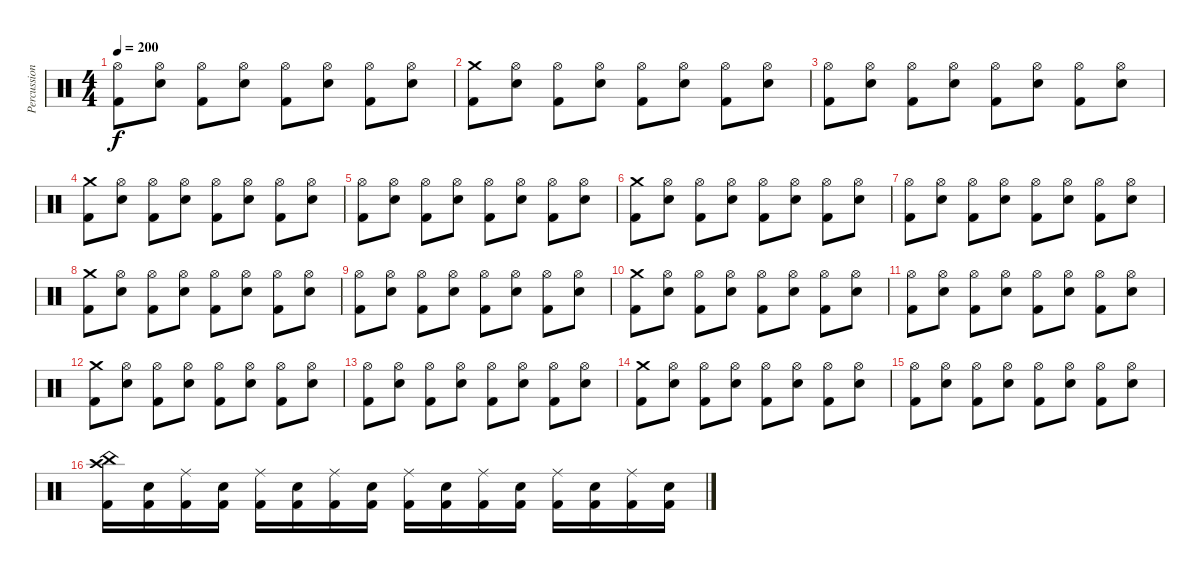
\track ("Percussion" "Percussion") {instrument percussion}
\staff
\articulation defaults
\ts (4 4)
\tempo 200
\clef neutral
\ks c
("Hi-Hat (open)" "Kick (hit) 2").8{dy f} ("Hi-Hat (open)" "Electric Snare (hit)").8 ("Hi-Hat (open)" "Kick (hit) 2").8 ("Hi-Hat (open)" "Electric Snare (hit)").8 ("Hi-Hat (open)" "Kick (hit) 2").8 ("Hi-Hat (open)" "Electric Snare (hit)").8 ("Hi-Hat (open)" "Kick (hit) 2").8 ("Hi-Hat (open)" "Electric Snare (hit)").8 |
("Crash medium (hit)" "Kick (hit) 2").8 ("Hi-Hat (open)" "Electric Snare (hit)").8 ("Hi-Hat (open)" "Kick (hit) 2").8 ("Hi-Hat (open)" "Electric Snare (hit)").8 ("Hi-Hat (open)" "Kick (hit) 2").8 ("Hi-Hat (open)" "Electric Snare (hit)").8 ("Hi-Hat (open)" "Kick (hit) 2").8 ("Hi-Hat (open)" "Electric Snare (hit)").8 |
("Hi-Hat (open)" "Kick (hit) 2").8 ("Hi-Hat (open)" "Electric Snare (hit)").8 ("Hi-Hat (open)" "Kick (hit) 2").8 ("Hi-Hat (open)" "Electric Snare (hit)").8 ("Hi-Hat (open)" "Kick (hit) 2").8 ("Hi-Hat (open)" "Electric Snare (hit)").8 ("Hi-Hat (open)" "Kick (hit) 2").8 ("Hi-Hat (open)" "Electric Snare (hit)").8 |
("Crash medium (hit)" "Kick (hit) 2").8 ("Hi-Hat (open)" "Electric Snare (hit)").8 ("Hi-Hat (open)" "Kick (hit) 2").8 ("Hi-Hat (open)" "Electric Snare (hit)").8 ("Hi-Hat (open)" "Kick (hit) 2").8 ("Hi-Hat (open)" "Electric Snare (hit)").8 ("Hi-Hat (open)" "Kick (hit) 2").8 ("Hi-Hat (open)" "Electric Snare (hit)").8 |
("Hi-Hat (open)" "Kick (hit) 2").8 ("Hi-Hat (open)" "Electric Snare (hit)").8 ("Hi-Hat (open)" "Kick (hit) 2").8 ("Hi-Hat (open)" "Electric Snare (hit)").8 ("Hi-Hat (open)" "Kick (hit) 2").8 ("Hi-Hat (open)" "Electric Snare (hit)").8 ("Hi-Hat (open)" "Kick (hit) 2").8 ("Hi-Hat (open)" "Electric Snare (hit)").8 |
("Crash medium (hit)" "Kick (hit) 2").8 ("Hi-Hat (open)" "Electric Snare (hit)").8 ("Hi-Hat (open)" "Kick (hit) 2").8 ("Hi-Hat (open)" "Electric Snare (hit)").8 ("Hi-Hat (open)" "Kick (hit) 2").8 ("Hi-Hat (open)" "Electric Snare (hit)").8 ("Hi-Hat (open)" "Kick (hit) 2").8 ("Hi-Hat (open)" "Electric Snare (hit)").8 |
("Hi-Hat (open)" "Kick (hit) 2").8 ("Hi-Hat (open)" "Electric Snare (hit)").8 ("Hi-Hat (open)" "Kick (hit) 2").8 ("Hi-Hat (open)" "Electric Snare (hit)").8 ("Hi-Hat (open)" "Kick (hit) 2").8 ("Hi-Hat (open)" "Electric Snare (hit)").8 ("Hi-Hat (open)" "Kick (hit) 2").8 ("Hi-Hat (open)" "Electric Snare (hit)").8 |
("Crash medium (hit)" "Kick (hit) 2").8 ("Hi-Hat (open)" "Electric Snare (hit)").8 ("Hi-Hat (open)" "Kick (hit) 2").8 ("Hi-Hat (open)" "Electric Snare (hit)").8 ("Hi-Hat (open)" "Kick (hit) 2").8 ("Hi-Hat (open)" "Electric Snare (hit)").8 ("Hi-Hat (open)" "Kick (hit) 2").8 ("Hi-Hat (open)" "Electric Snare (hit)").8 |
("Hi-Hat (open)" "Kick (hit) 2").8 ("Hi-Hat (open)" "Electric Snare (hit)").8 ("Hi-Hat (open)" "Kick (hit) 2").8 ("Hi-Hat (open)" "Electric Snare (hit)").8 ("Hi-Hat (open)" "Kick (hit) 2").8 ("Hi-Hat (open)" "Electric Snare (hit)").8 ("Hi-Hat (open)" "Kick (hit) 2").8 ("Hi-Hat (open)" "Electric Snare (hit)").8 |
("Crash medium (hit)" "Kick (hit) 2").8 ("Hi-Hat (open)" "Electric Snare (hit)").8 ("Hi-Hat (open)" "Kick (hit) 2").8 ("Hi-Hat (open)" "Electric Snare (hit)").8 ("Hi-Hat (open)" "Kick (hit) 2").8 ("Hi-Hat (open)" "Electric Snare (hit)").8 ("Hi-Hat (open)" "Kick (hit) 2").8 ("Hi-Hat (open)" "Electric Snare (hit)").8 |
("Hi-Hat (open)" "Kick (hit) 2").8 ("Hi-Hat (open)" "Electric Snare (hit)").8 ("Hi-Hat (open)" "Kick (hit) 2").8 ("Hi-Hat (open)" "Electric Snare (hit)").8 ("Hi-Hat (open)" "Kick (hit) 2").8 ("Hi-Hat (open)" "Electric Snare (hit)").8 ("Hi-Hat (open)" "Kick (hit) 2").8 ("Hi-Hat (open)" "Electric Snare (hit)").8 |
("Crash medium (hit)" "Kick (hit) 2").8 ("Hi-Hat (open)" "Electric Snare (hit)").8 ("Hi-Hat (open)" "Kick (hit) 2").8 ("Hi-Hat (open)" "Electric Snare (hit)").8 ("Hi-Hat (open)" "Kick (hit) 2").8 ("Hi-Hat (open)" "Electric Snare (hit)").8 ("Hi-Hat (open)" "Kick (hit) 2").8 ("Hi-Hat (open)" "Electric Snare (hit)").8 |
("Hi-Hat (open)" "Kick (hit) 2").8 ("Hi-Hat (open)" "Electric Snare (hit)").8 ("Hi-Hat (open)" "Kick (hit) 2").8 ("Hi-Hat (open)" "Electric Snare (hit)").8 ("Hi-Hat (open)" "Kick (hit) 2").8 ("Hi-Hat (open)" "Electric Snare (hit)").8 ("Hi-Hat (open)" "Kick (hit) 2").8 ("Hi-Hat (open)" "Electric Snare (hit)").8 |
("Crash medium (hit)" "Kick (hit) 2").8 ("Hi-Hat (open)" "Electric Snare (hit)").8 ("Hi-Hat (open)" "Kick (hit) 2").8 ("Hi-Hat (open)" "Electric Snare (hit)").8 ("Hi-Hat (open)" "Kick (hit) 2").8 ("Hi-Hat (open)" "Electric Snare (hit)").8 ("Hi-Hat (open)" "Kick (hit) 2").8 ("Hi-Hat (open)" "Electric Snare (hit)").8 |
("Hi-Hat (open)" "Kick (hit) 2").8 ("Hi-Hat (open)" "Electric Snare (hit)").8 ("Hi-Hat (open)" "Kick (hit) 2").8 ("Hi-Hat (open)" "Electric Snare (hit)").8 ("Hi-Hat (open)" "Kick (hit) 2").8 ("Hi-Hat (open)" "Electric Snare (hit)").8 ("Hi-Hat (open)" "Kick (hit) 2").8 ("Hi-Hat (open)" "Electric Snare (hit)").8 |
("China (hit)" "Crash high (hit)" "Kick (hit) 2").16 ("Electric Snare (hit)" "Kick (hit) 2").16 ("Ride (middle)" "Kick (hit) 2").16 ("Electric Snare (hit)" "Kick (hit) 2").16 ("Ride (middle)" "Kick (hit) 2").16 ("Electric Snare (hit)" "Kick (hit) 2").16 ("Ride (middle)" "Kick (hit) 2").16 ("Electric Snare (hit)" "Kick (hit) 2").16 ("Ride (middle)" "Kick (hit) 2").16 ("Electric Snare (hit)" "Kick (hit) 2").16 ("Ride (middle)" "Kick (hit) 2").16 ("Electric Snare (hit)" "Kick (hit) 2").16 ("Ride (middle)" "Kick (hit) 2").16 ("Electric Snare (hit)" "Kick (hit) 2").16 ("Ride (middle)" "Kick (hit) 2").16 ("Electric Snare (hit)" "Kick (hit) 2").16
